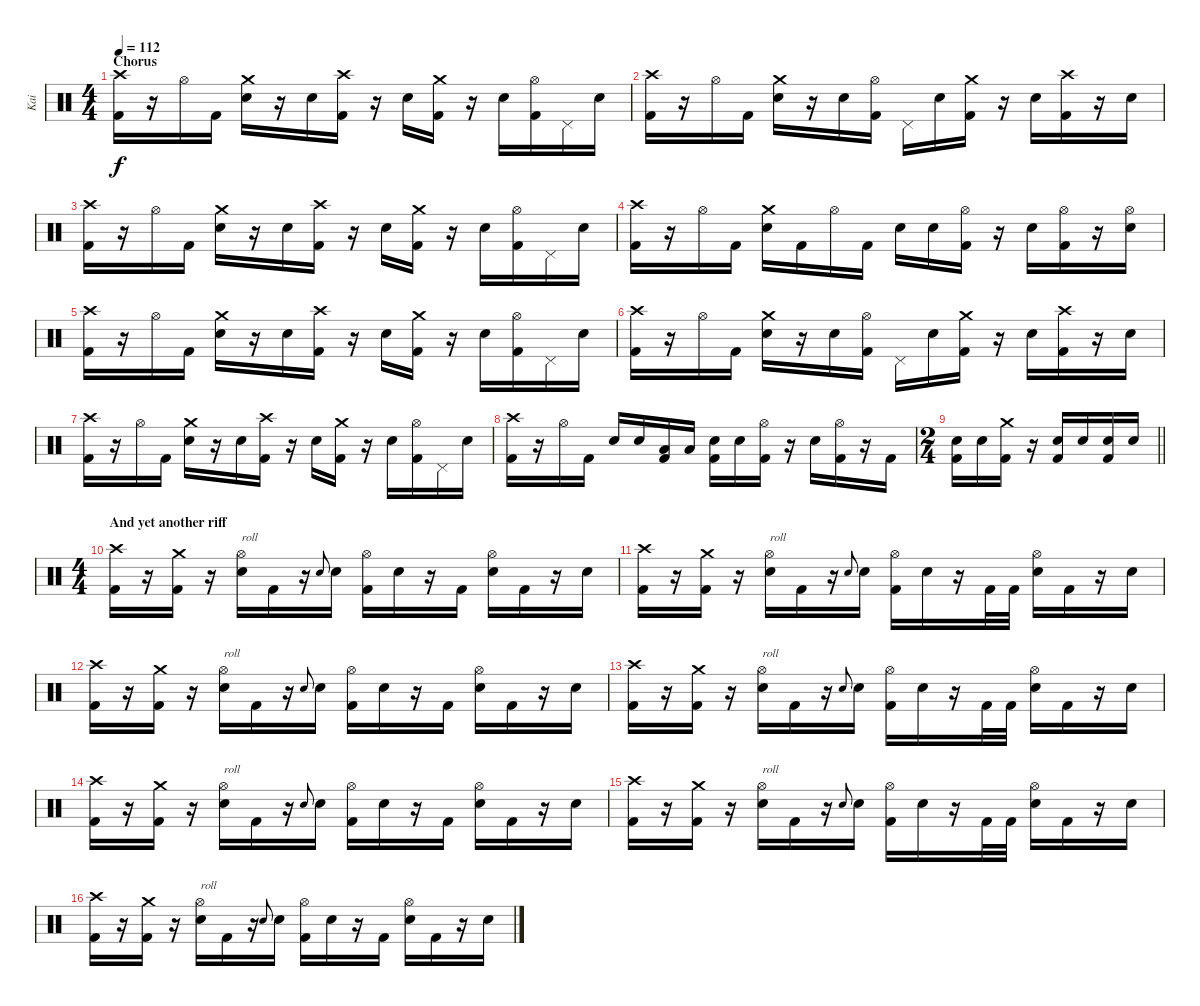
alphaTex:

\track ("Kai" "Kai") {mute instrument percussion}
\staff {score}
\articulation defaults
\ts (4 4)
\section ("" "Chorus")
\tempo 112
\clef neutral
\ks c
("Crash high (hit)" "Kick (hit) 2").16{dy f} r.16 "Hi-Hat (open)".16 "Kick (hit) 2".16 ("Crash medium (hit)" "Electric Snare (hit)").16 r.16 "Electric Snare (hit)".16 ("Crash high (hit)" "Kick (hit) 2").16 r.16 "Electric Snare (hit)".16 ("Crash medium (hit)" "Kick (hit) 2").16 r.16 "Electric Snare (hit)".16 ("Hi-Hat (open)" "Kick (hit) 2").16 "Pedal Hi-Hat (hit)".16 "Electric Snare (hit)".16 |
("Crash high (hit)" "Kick (hit) 2").16 r.16 "Hi-Hat (open)".16 "Kick (hit) 2".16 ("Crash medium (hit)" "Electric Snare (hit)").16 r.16 "Electric Snare (hit)".16 ("Hi-Hat (open)" "Kick (hit) 2").16 "Pedal Hi-Hat (hit)".16 "Electric Snare (hit)".16 ("Crash medium (hit)" "Kick (hit) 2").16 r.16 "Electric Snare (hit)".16 ("Crash high (hit)" "Kick (hit) 2").16 r.16 "Electric Snare (hit)".16 |
("Crash high (hit)" "Kick (hit) 2").16 r.16 "Hi-Hat (open)".16 "Kick (hit) 2".16 ("Crash medium (hit)" "Electric Snare (hit)").16 r.16 "Electric Snare (hit)".16 ("Crash high (hit)" "Kick (hit) 2").16 r.16 "Electric Snare (hit)".16 ("Crash medium (hit)" "Kick (hit) 2").16 r.16 "Electric Snare (hit)".16 ("Hi-Hat (open)" "Kick (hit) 2").16 "Pedal Hi-Hat (hit)".16 "Electric Snare (hit)".16 |
("Crash high (hit)" "Kick (hit) 2").16 r.16 "Hi-Hat (open)".16 "Kick (hit) 2".16 ("Crash medium (hit)" "Electric Snare (hit)").16 "Kick (hit) 2".16 "Hi-Hat (open)".16 "Kick (hit) 2".16 "Electric Snare (hit)".16 "Electric Snare (hit)".16 ("Hi-Hat (open)" "Kick (hit) 2").16 r.16 "Electric Snare (hit)".16 ("Hi-Hat (open)" "Kick (hit) 2").16 r.16 ("Hi-Hat (open)" "Electric Snare (hit)").16 |
("Crash high (hit)" "Kick (hit) 2").16 r.16 "Hi-Hat (open)".16 "Kick (hit) 2".16 ("Crash medium (hit)" "Electric Snare (hit)").16 r.16 "Electric Snare (hit)".16 ("Crash high (hit)" "Kick (hit) 2").16 r.16 "Electric Snare (hit)".16 ("Crash medium (hit)" "Kick (hit) 2").16 r.16 "Electric Snare (hit)".16 ("Hi-Hat (open)" "Kick (hit) 2").16 "Pedal Hi-Hat (hit)".16 "Electric Snare (hit)".16 |
("Crash high (hit)" "Kick (hit) 2").16 r.16 "Hi-Hat (open)".16 "Kick (hit) 2".16 ("Crash medium (hit)" "Electric Snare (hit)").16 r.16 "Electric Snare (hit)".16 ("Hi-Hat (open)" "Kick (hit) 2").16 "Pedal Hi-Hat (hit)".16 "Electric Snare (hit)".16 ("Crash medium (hit)" "Kick (hit) 2").16 r.16 "Electric Snare (hit)".16 ("Crash high (hit)" "Kick (hit) 2").16 r.16 "Electric Snare (hit)".16 |
("Crash high (hit)" "Kick (hit) 2").16 r.16 "Hi-Hat (open)".16 "Kick (hit) 2".16 ("Crash medium (hit)" "Electric Snare (hit)").16 r.16 "Electric Snare (hit)".16 ("Crash high (hit)" "Kick (hit) 2").16 r.16 "Electric Snare (hit)".16 ("Crash medium (hit)" "Kick (hit) 2").16 r.16 "Electric Snare (hit)".16 ("Hi-Hat (open)" "Kick (hit) 2").16 "Pedal Hi-Hat (hit)".16 "Electric Snare (hit)".16 |
("Crash high (hit)" "Kick (hit) 2").16 r.16 "Hi-Hat (open)".16 "Kick (hit) 2".16 "Electric Snare (hit)".16 "Electric Snare (hit)".16 ("Low Tom (hit)" "Kick (hit) 2").16 "Low Tom (hit)".16 ("Electric Snare (hit)" "Kick (hit) 2").16 "Electric Snare (hit)".16 ("Hi-Hat (open)" "Kick (hit) 2").16 r.16 "Electric Snare (hit)".16 ("Hi-Hat (open)" "Kick (hit) 2").16 r.16 "Kick (hit) 2".16 |
\ts (2 4)
\barLineRight lightlight
("Electric Snare (hit)" "Kick (hit) 2").16 "Electric Snare (hit)".16 ("Crash medium (hit)" "Kick (hit) 2").16 r.16 ("Electric Snare (hit)" "Kick (hit) 2").16 "Electric Snare (hit)".16 ("Electric Snare (hit)" "Kick (hit) 2").16 "Electric Snare (hit)".16 |
\ts (4 4)
\section ("" "And yet another riff")
("Crash high (hit)" "Kick (hit) 2").16 r.16 ("Crash medium (hit)" "Kick (hit) 2").16 r.16 ("Hi-Hat (open)" "Electric Snare (hit)").16{txt "roll"} "Kick (hit) 2".16 r.16 "Electric Snare (hit)".8{gr onbeat} "Electric Snare (hit)".16 ("Hi-Hat (open)" "Kick (hit) 2").16 "Electric Snare (hit)".16 r.16 "Kick (hit) 2".16 ("Hi-Hat (open)" "Electric Snare (hit)").16 "Kick (hit) 2".16 r.16 "Electric Snare (hit)".16 |
("Crash high (hit)" "Kick (hit) 2").16 r.16 ("Crash medium (hit)" "Kick (hit) 2").16 r.16 ("Hi-Hat (open)" "Electric Snare (hit)").16{txt "roll"} "Kick (hit) 2".16 r.16 "Electric Snare (hit)".8{gr onbeat} "Electric Snare (hit)".16 ("Hi-Hat (open)" "Kick (hit) 2").16 "Electric Snare (hit)".16 r.16 "Kick (hit) 2".32 "Kick (hit) 2".32 ("Hi-Hat (open)" "Electric Snare (hit)").16 "Kick (hit) 2".16 r.16 "Electric Snare (hit)".16 |
("Crash high (hit)" "Kick (hit) 2").16 r.16 ("Crash medium (hit)" "Kick (hit) 2").16 r.16 ("Hi-Hat (open)" "Electric Snare (hit)").16{txt "roll"} "Kick (hit) 2".16 r.16 "Electric Snare (hit)".8{gr onbeat} "Electric Snare (hit)".16 ("Hi-Hat (open)" "Kick (hit) 2").16 "Electric Snare (hit)".16 r.16 "Kick (hit) 2".16 ("Hi-Hat (open)" "Electric Snare (hit)").16 "Kick (hit) 2".16 r.16 "Electric Snare (hit)".16 |
("Crash high (hit)" "Kick (hit) 2").16 r.16 ("Crash medium (hit)" "Kick (hit) 2").16 r.16 ("Hi-Hat (open)" "Electric Snare (hit)").16{txt "roll"} "Kick (hit) 2".16 r.16 "Electric Snare (hit)".8{gr onbeat} "Electric Snare (hit)".16 ("Hi-Hat (open)" "Kick (hit) 2").16 "Electric Snare (hit)".16 r.16 "Kick (hit) 2".32 "Kick (hit) 2".32 ("Hi-Hat (open)" "Electric Snare (hit)").16 "Kick (hit) 2".16 r.16 "Electric Snare (hit)".16 |
("Crash high (hit)" "Kick (hit) 2").16 r.16 ("Crash medium (hit)" "Kick (hit) 2").16 r.16 ("Hi-Hat (open)" "Electric Snare (hit)").16{txt "roll"} "Kick (hit) 2".16 r.16 "Electric Snare (hit)".8{gr onbeat} "Electric Snare (hit)".16 ("Hi-Hat (open)" "Kick (hit) 2").16 "Electric Snare (hit)".16 r.16 "Kick (hit) 2".16 ("Hi-Hat (open)" "Electric Snare (hit)").16 "Kick (hit) 2".16 r.16 "Electric Snare (hit)".16 |
("Crash high (hit)" "Kick (hit) 2").16 r.16 ("Crash medium (hit)" "Kick (hit) 2").16 r.16 ("Hi-Hat (open)" "Electric Snare (hit)").16{txt "roll"} "Kick (hit) 2".16 r.16 "Electric Snare (hit)".8{gr onbeat} "Electric Snare (hit)".16 ("Hi-Hat (open)" "Kick (hit) 2").16 "Electric Snare (hit)".16 r.16 "Kick (hit) 2".32 "Kick (hit) 2".32 ("Hi-Hat (open)" "Electric Snare (hit)").16 "Kick (hit) 2".16 r.16 "Electric Snare (hit)".16 |
("Crash high (hit)" "Kick (hit) 2").16 r.16 ("Crash medium (hit)" "Kick (hit) 2").16 r.16 ("Hi-Hat (open)" "Electric Snare (hit)").16{txt "roll"} "Kick (hit) 2".16 r.16 "Electric Snare (hit)".8{gr onbeat} "Electric Snare (hit)".16 ("Hi-Hat (open)" "Kick (hit) 2").16 "Electric Snare (hit)".16 r.16 "Kick (hit) 2".16 ("Hi-Hat (open)" "Electric Snare (hit)").16 "Kick (hit) 2".16 r.16 "Electric Snare (hit)".16
